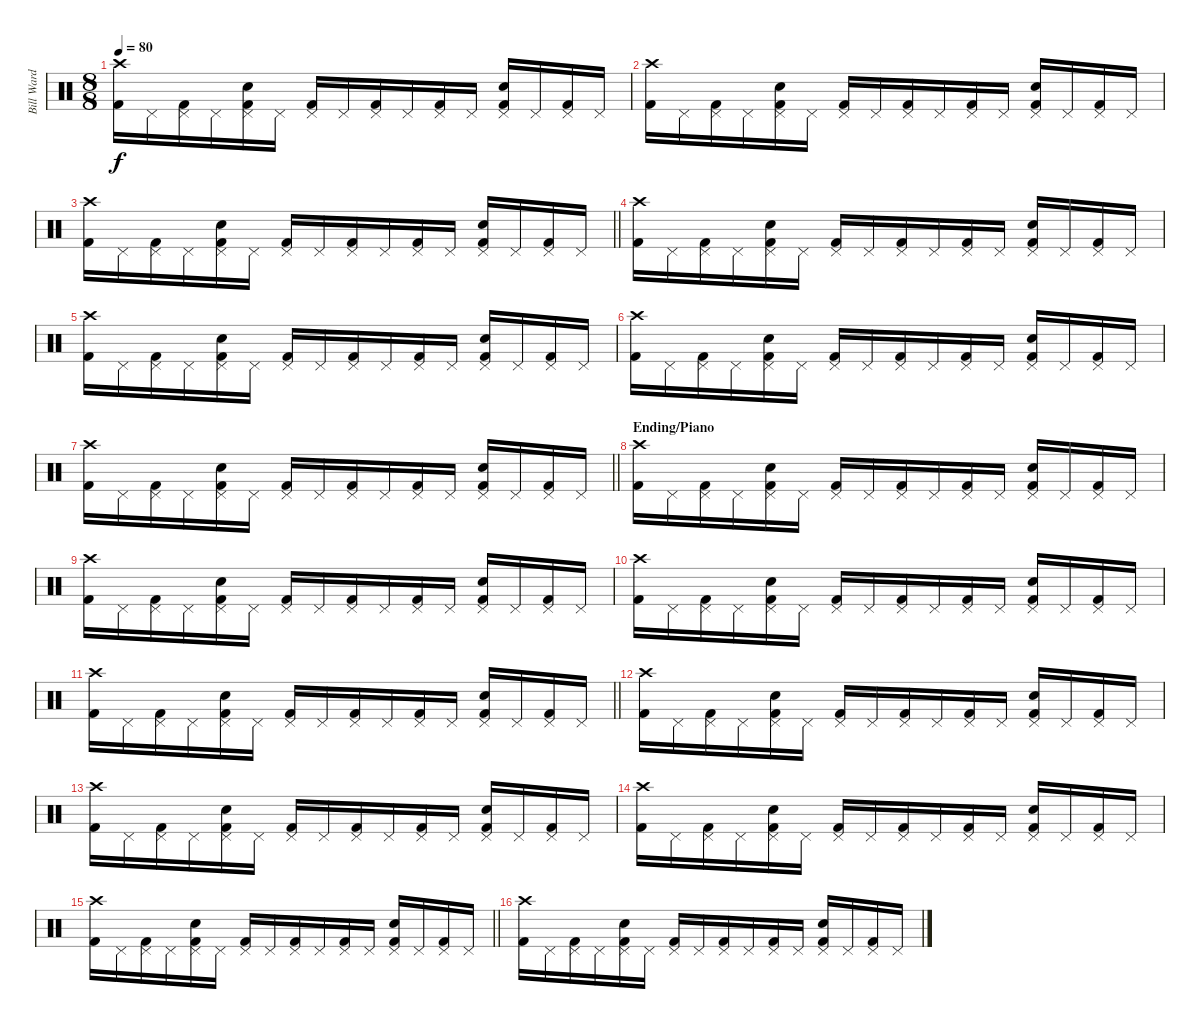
\track ("Bill Ward (Drums)" "Bill Ward ") {instrument percussion}
\staff {score}
\articulation defaults
\ts (8 8)
\tempo 80
\clef neutral
\ks c
("Kick (hit) 2" "Crash high (hit)").16{dy f} "Pedal Hi-Hat (hit)".16 ("Kick (hit) 2" "Pedal Hi-Hat (hit)").16 "Pedal Hi-Hat (hit)".16 ("Kick (hit) 2" "Snare (hit) 2" "Pedal Hi-Hat (hit)").16 "Pedal Hi-Hat (hit)".16 ("Kick (hit) 2" "Pedal Hi-Hat (hit)").16 "Pedal Hi-Hat (hit)".16 ("Kick (hit) 2" "Pedal Hi-Hat (hit)").16 "Pedal Hi-Hat (hit)".16 ("Kick (hit) 2" "Pedal Hi-Hat (hit)").16 "Pedal Hi-Hat (hit)".16 ("Kick (hit) 2" "Snare (hit) 2" "Pedal Hi-Hat (hit)").16 "Pedal Hi-Hat (hit)".16 ("Kick (hit) 2" "Pedal Hi-Hat (hit)").16 "Pedal Hi-Hat (hit)".16 |
("Kick (hit) 2" "Crash high (hit)").16 "Pedal Hi-Hat (hit)".16 ("Kick (hit) 2" "Pedal Hi-Hat (hit)").16 "Pedal Hi-Hat (hit)".16 ("Kick (hit) 2" "Snare (hit) 2" "Pedal Hi-Hat (hit)").16 "Pedal Hi-Hat (hit)".16 ("Kick (hit) 2" "Pedal Hi-Hat (hit)").16 "Pedal Hi-Hat (hit)".16 ("Kick (hit) 2" "Pedal Hi-Hat (hit)").16 "Pedal Hi-Hat (hit)".16 ("Kick (hit) 2" "Pedal Hi-Hat (hit)").16 "Pedal Hi-Hat (hit)".16 ("Kick (hit) 2" "Snare (hit) 2" "Pedal Hi-Hat (hit)").16 "Pedal Hi-Hat (hit)".16 ("Kick (hit) 2" "Pedal Hi-Hat (hit)").16 "Pedal Hi-Hat (hit)".16 |
\barLineRight lightlight
("Kick (hit) 2" "Crash high (hit)").16 "Pedal Hi-Hat (hit)".16 ("Kick (hit) 2" "Pedal Hi-Hat (hit)").16 "Pedal Hi-Hat (hit)".16 ("Kick (hit) 2" "Snare (hit) 2" "Pedal Hi-Hat (hit)").16 "Pedal Hi-Hat (hit)".16 ("Kick (hit) 2" "Pedal Hi-Hat (hit)").16 "Pedal Hi-Hat (hit)".16 ("Kick (hit) 2" "Pedal Hi-Hat (hit)").16 "Pedal Hi-Hat (hit)".16 ("Kick (hit) 2" "Pedal Hi-Hat (hit)").16 "Pedal Hi-Hat (hit)".16 ("Kick (hit) 2" "Snare (hit) 2" "Pedal Hi-Hat (hit)").16 "Pedal Hi-Hat (hit)".16 ("Kick (hit) 2" "Pedal Hi-Hat (hit)").16 "Pedal Hi-Hat (hit)".16 |
("Kick (hit) 2" "Crash high (hit)").16 "Pedal Hi-Hat (hit)".16 ("Kick (hit) 2" "Pedal Hi-Hat (hit)").16 "Pedal Hi-Hat (hit)".16 ("Kick (hit) 2" "Snare (hit) 2" "Pedal Hi-Hat (hit)").16 "Pedal Hi-Hat (hit)".16 ("Kick (hit) 2" "Pedal Hi-Hat (hit)").16 "Pedal Hi-Hat (hit)".16 ("Kick (hit) 2" "Pedal Hi-Hat (hit)").16 "Pedal Hi-Hat (hit)".16 ("Kick (hit) 2" "Pedal Hi-Hat (hit)").16 "Pedal Hi-Hat (hit)".16 ("Kick (hit) 2" "Snare (hit) 2" "Pedal Hi-Hat (hit)").16 "Pedal Hi-Hat (hit)".16 ("Kick (hit) 2" "Pedal Hi-Hat (hit)").16 "Pedal Hi-Hat (hit)".16 |
("Kick (hit) 2" "Crash high (hit)").16 "Pedal Hi-Hat (hit)".16 ("Kick (hit) 2" "Pedal Hi-Hat (hit)").16 "Pedal Hi-Hat (hit)".16 ("Kick (hit) 2" "Snare (hit) 2" "Pedal Hi-Hat (hit)").16 "Pedal Hi-Hat (hit)".16 ("Kick (hit) 2" "Pedal Hi-Hat (hit)").16 "Pedal Hi-Hat (hit)".16 ("Kick (hit) 2" "Pedal Hi-Hat (hit)").16 "Pedal Hi-Hat (hit)".16 ("Kick (hit) 2" "Pedal Hi-Hat (hit)").16 "Pedal Hi-Hat (hit)".16 ("Kick (hit) 2" "Snare (hit) 2" "Pedal Hi-Hat (hit)").16 "Pedal Hi-Hat (hit)".16 ("Kick (hit) 2" "Pedal Hi-Hat (hit)").16 "Pedal Hi-Hat (hit)".16 |
("Kick (hit) 2" "Crash high (hit)").16 "Pedal Hi-Hat (hit)".16 ("Kick (hit) 2" "Pedal Hi-Hat (hit)").16 "Pedal Hi-Hat (hit)".16 ("Kick (hit) 2" "Snare (hit) 2" "Pedal Hi-Hat (hit)").16 "Pedal Hi-Hat (hit)".16 ("Kick (hit) 2" "Pedal Hi-Hat (hit)").16 "Pedal Hi-Hat (hit)".16 ("Kick (hit) 2" "Pedal Hi-Hat (hit)").16 "Pedal Hi-Hat (hit)".16 ("Kick (hit) 2" "Pedal Hi-Hat (hit)").16 "Pedal Hi-Hat (hit)".16 ("Kick (hit) 2" "Snare (hit) 2" "Pedal Hi-Hat (hit)").16 "Pedal Hi-Hat (hit)".16 ("Kick (hit) 2" "Pedal Hi-Hat (hit)").16 "Pedal Hi-Hat (hit)".16 |
\barLineRight lightlight
("Kick (hit) 2" "Crash high (hit)").16 "Pedal Hi-Hat (hit)".16 ("Kick (hit) 2" "Pedal Hi-Hat (hit)").16 "Pedal Hi-Hat (hit)".16 ("Kick (hit) 2" "Snare (hit) 2" "Pedal Hi-Hat (hit)").16 "Pedal Hi-Hat (hit)".16 ("Kick (hit) 2" "Pedal Hi-Hat (hit)").16 "Pedal Hi-Hat (hit)".16 ("Kick (hit) 2" "Pedal Hi-Hat (hit)").16 "Pedal Hi-Hat (hit)".16 ("Kick (hit) 2" "Pedal Hi-Hat (hit)").16 "Pedal Hi-Hat (hit)".16 ("Kick (hit) 2" "Snare (hit) 2" "Pedal Hi-Hat (hit)").16 "Pedal Hi-Hat (hit)".16 ("Kick (hit) 2" "Pedal Hi-Hat (hit)").16 "Pedal Hi-Hat (hit)".16 |
\section ("" "Ending/Piano")
("Kick (hit) 2" "Crash high (hit)").16 "Pedal Hi-Hat (hit)".16 ("Kick (hit) 2" "Pedal Hi-Hat (hit)").16 "Pedal Hi-Hat (hit)".16 ("Kick (hit) 2" "Snare (hit) 2" "Pedal Hi-Hat (hit)").16 "Pedal Hi-Hat (hit)".16 ("Kick (hit) 2" "Pedal Hi-Hat (hit)").16 "Pedal Hi-Hat (hit)".16 ("Kick (hit) 2" "Pedal Hi-Hat (hit)").16 "Pedal Hi-Hat (hit)".16 ("Kick (hit) 2" "Pedal Hi-Hat (hit)").16 "Pedal Hi-Hat (hit)".16 ("Kick (hit) 2" "Snare (hit) 2" "Pedal Hi-Hat (hit)").16 "Pedal Hi-Hat (hit)".16 ("Kick (hit) 2" "Pedal Hi-Hat (hit)").16 "Pedal Hi-Hat (hit)".16 |
("Kick (hit) 2" "Crash high (hit)").16 "Pedal Hi-Hat (hit)".16 ("Kick (hit) 2" "Pedal Hi-Hat (hit)").16 "Pedal Hi-Hat (hit)".16 ("Kick (hit) 2" "Snare (hit) 2" "Pedal Hi-Hat (hit)").16 "Pedal Hi-Hat (hit)".16 ("Kick (hit) 2" "Pedal Hi-Hat (hit)").16 "Pedal Hi-Hat (hit)".16 ("Kick (hit) 2" "Pedal Hi-Hat (hit)").16 "Pedal Hi-Hat (hit)".16 ("Kick (hit) 2" "Pedal Hi-Hat (hit)").16 "Pedal Hi-Hat (hit)".16 ("Kick (hit) 2" "Snare (hit) 2" "Pedal Hi-Hat (hit)").16 "Pedal Hi-Hat (hit)".16 ("Kick (hit) 2" "Pedal Hi-Hat (hit)").16 "Pedal Hi-Hat (hit)".16 |
("Kick (hit) 2" "Crash high (hit)").16 "Pedal Hi-Hat (hit)".16 ("Kick (hit) 2" "Pedal Hi-Hat (hit)").16 "Pedal Hi-Hat (hit)".16 ("Kick (hit) 2" "Snare (hit) 2" "Pedal Hi-Hat (hit)").16 "Pedal Hi-Hat (hit)".16 ("Kick (hit) 2" "Pedal Hi-Hat (hit)").16 "Pedal Hi-Hat (hit)".16 ("Kick (hit) 2" "Pedal Hi-Hat (hit)").16 "Pedal Hi-Hat (hit)".16 ("Kick (hit) 2" "Pedal Hi-Hat (hit)").16 "Pedal Hi-Hat (hit)".16 ("Kick (hit) 2" "Snare (hit) 2" "Pedal Hi-Hat (hit)").16 "Pedal Hi-Hat (hit)".16 ("Kick (hit) 2" "Pedal Hi-Hat (hit)").16 "Pedal Hi-Hat (hit)".16 |
\barLineRight lightlight
("Kick (hit) 2" "Crash high (hit)").16 "Pedal Hi-Hat (hit)".16 ("Kick (hit) 2" "Pedal Hi-Hat (hit)").16 "Pedal Hi-Hat (hit)".16 ("Kick (hit) 2" "Snare (hit) 2" "Pedal Hi-Hat (hit)").16 "Pedal Hi-Hat (hit)".16 ("Kick (hit) 2" "Pedal Hi-Hat (hit)").16 "Pedal Hi-Hat (hit)".16 ("Kick (hit) 2" "Pedal Hi-Hat (hit)").16 "Pedal Hi-Hat (hit)".16 ("Kick (hit) 2" "Pedal Hi-Hat (hit)").16 "Pedal Hi-Hat (hit)".16 ("Kick (hit) 2" "Snare (hit) 2" "Pedal Hi-Hat (hit)").16 "Pedal Hi-Hat (hit)".16 ("Kick (hit) 2" "Pedal Hi-Hat (hit)").16 "Pedal Hi-Hat (hit)".16 |
("Kick (hit) 2" "Crash high (hit)").16 "Pedal Hi-Hat (hit)".16 ("Kick (hit) 2" "Pedal Hi-Hat (hit)").16 "Pedal Hi-Hat (hit)".16 ("Kick (hit) 2" "Snare (hit) 2" "Pedal Hi-Hat (hit)").16 "Pedal Hi-Hat (hit)".16 ("Kick (hit) 2" "Pedal Hi-Hat (hit)").16 "Pedal Hi-Hat (hit)".16 ("Kick (hit) 2" "Pedal Hi-Hat (hit)").16 "Pedal Hi-Hat (hit)".16 ("Kick (hit) 2" "Pedal Hi-Hat (hit)").16 "Pedal Hi-Hat (hit)".16 ("Kick (hit) 2" "Snare (hit) 2" "Pedal Hi-Hat (hit)").16 "Pedal Hi-Hat (hit)".16 ("Kick (hit) 2" "Pedal Hi-Hat (hit)").16 "Pedal Hi-Hat (hit)".16 |
("Kick (hit) 2" "Crash high (hit)").16 "Pedal Hi-Hat (hit)".16 ("Kick (hit) 2" "Pedal Hi-Hat (hit)").16 "Pedal Hi-Hat (hit)".16 ("Kick (hit) 2" "Snare (hit) 2" "Pedal Hi-Hat (hit)").16 "Pedal Hi-Hat (hit)".16 ("Kick (hit) 2" "Pedal Hi-Hat (hit)").16 "Pedal Hi-Hat (hit)".16 ("Kick (hit) 2" "Pedal Hi-Hat (hit)").16 "Pedal Hi-Hat (hit)".16 ("Kick (hit) 2" "Pedal Hi-Hat (hit)").16 "Pedal Hi-Hat (hit)".16 ("Kick (hit) 2" "Snare (hit) 2" "Pedal Hi-Hat (hit)").16 "Pedal Hi-Hat (hit)".16 ("Kick (hit) 2" "Pedal Hi-Hat (hit)").16 "Pedal Hi-Hat (hit)".16 |
("Kick (hit) 2" "Crash high (hit)").16 "Pedal Hi-Hat (hit)".16 ("Kick (hit) 2" "Pedal Hi-Hat (hit)").16 "Pedal Hi-Hat (hit)".16 ("Kick (hit) 2" "Snare (hit) 2" "Pedal Hi-Hat (hit)").16 "Pedal Hi-Hat (hit)".16 ("Kick (hit) 2" "Pedal Hi-Hat (hit)").16 "Pedal Hi-Hat (hit)".16 ("Kick (hit) 2" "Pedal Hi-Hat (hit)").16 "Pedal Hi-Hat (hit)".16 ("Kick (hit) 2" "Pedal Hi-Hat (hit)").16 "Pedal Hi-Hat (hit)".16 ("Kick (hit) 2" "Snare (hit) 2" "Pedal Hi-Hat (hit)").16 "Pedal Hi-Hat (hit)".16 ("Kick (hit) 2" "Pedal Hi-Hat (hit)").16 "Pedal Hi-Hat (hit)".16 |
\barLineRight lightlight
("Kick (hit) 2" "Crash high (hit)").16 "Pedal Hi-Hat (hit)".16 ("Kick (hit) 2" "Pedal Hi-Hat (hit)").16 "Pedal Hi-Hat (hit)".16 ("Kick (hit) 2" "Snare (hit) 2" "Pedal Hi-Hat (hit)").16 "Pedal Hi-Hat (hit)".16 ("Kick (hit) 2" "Pedal Hi-Hat (hit)").16 "Pedal Hi-Hat (hit)".16 ("Kick (hit) 2" "Pedal Hi-Hat (hit)").16 "Pedal Hi-Hat (hit)".16 ("Kick (hit) 2" "Pedal Hi-Hat (hit)").16 "Pedal Hi-Hat (hit)".16 ("Kick (hit) 2" "Snare (hit) 2" "Pedal Hi-Hat (hit)").16 "Pedal Hi-Hat (hit)".16 ("Kick (hit) 2" "Pedal Hi-Hat (hit)").16 "Pedal Hi-Hat (hit)".16 |
("Kick (hit) 2" "Crash high (hit)").16 "Pedal Hi-Hat (hit)".16 ("Kick (hit) 2" "Pedal Hi-Hat (hit)").16 "Pedal Hi-Hat (hit)".16 ("Kick (hit) 2" "Snare (hit) 2" "Pedal Hi-Hat (hit)").16 "Pedal Hi-Hat (hit)".16 ("Kick (hit) 2" "Pedal Hi-Hat (hit)").16 "Pedal Hi-Hat (hit)".16 ("Kick (hit) 2" "Pedal Hi-Hat (hit)").16 "Pedal Hi-Hat (hit)".16 ("Kick (hit) 2" "Pedal Hi-Hat (hit)").16 "Pedal Hi-Hat (hit)".16 ("Kick (hit) 2" "Snare (hit) 2" "Pedal Hi-Hat (hit)").16 "Pedal Hi-Hat (hit)".16 ("Kick (hit) 2" "Pedal Hi-Hat (hit)").16 "Pedal Hi-Hat (hit)".16
